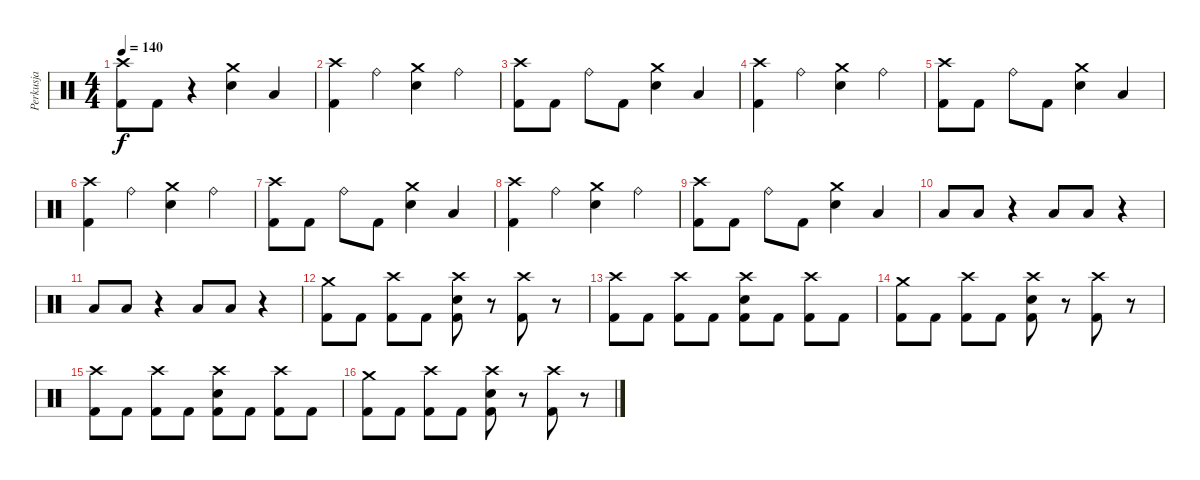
\track ("Perkusja" "Perkusja") {instrument percussion}
\staff {score}
\articulation defaults
\ts (4 4)
\tempo 140
\clef neutral
\ks c
("Crash high (hit)" "Kick (hit) 2").8{dy f} "Kick (hit) 2".8 r.4 ("Crash medium (hit)" "Electric Snare (hit)").4 "Low Floor Tom (hit)".4 |
("Crash high (hit)" "Kick (hit) 2").4 "Ride (bell)".4 ("Crash medium (hit)" "Electric Snare (hit)").4 "Ride (bell)".4 |
("Crash high (hit)" "Kick (hit) 2").8 "Kick (hit) 2".8 "Ride (bell)".8 "Kick (hit) 2".8 ("Crash medium (hit)" "Electric Snare (hit)").4 "Low Floor Tom (hit)".4 |
("Crash high (hit)" "Kick (hit) 2").4 "Ride (bell)".4 ("Crash medium (hit)" "Electric Snare (hit)").4 "Ride (bell)".4 |
("Crash high (hit)" "Kick (hit) 2").8 "Kick (hit) 2".8 "Ride (bell)".8 "Kick (hit) 2".8 ("Crash medium (hit)" "Electric Snare (hit)").4 "Low Floor Tom (hit)".4 |
("Crash high (hit)" "Kick (hit) 2").4 "Ride (bell)".4 ("Crash medium (hit)" "Electric Snare (hit)").4 "Ride (bell)".4 |
("Crash high (hit)" "Kick (hit) 2").8 "Kick (hit) 2".8 "Ride (bell)".8 "Kick (hit) 2".8 ("Crash medium (hit)" "Electric Snare (hit)").4 "Low Floor Tom (hit)".4 |
("Crash high (hit)" "Kick (hit) 2").4 "Ride (bell)".4 ("Crash medium (hit)" "Electric Snare (hit)").4 "Ride (bell)".4 |
("Crash high (hit)" "Kick (hit) 2").8 "Kick (hit) 2".8 "Ride (bell)".8 "Kick (hit) 2".8 ("Crash medium (hit)" "Electric Snare (hit)").4 "Low Floor Tom (hit)".4 |
"Low Floor Tom (hit)".8 "Low Floor Tom (hit)".8 r.4 "Low Floor Tom (hit)".8 "Low Floor Tom (hit)".8 r.4 |
"Low Floor Tom (hit)".8 "Low Floor Tom (hit)".8 r.4 "Low Floor Tom (hit)".8 "Low Floor Tom (hit)".8 r.4 |
("Crash medium (hit)" "Kick (hit) 2").8 "Kick (hit) 2".8 ("Crash high (hit)" "Kick (hit) 2").8 "Kick (hit) 2".8 ("Crash high (hit)" "Electric Snare (hit)" "Kick (hit) 2").8 r.8 ("Crash high (hit)" "Kick (hit) 2").8 r.8 |
("Crash high (hit)" "Kick (hit) 2").8 "Kick (hit) 2".8 ("Crash high (hit)" "Kick (hit) 2").8 "Kick (hit) 2".8 ("Crash high (hit)" "Electric Snare (hit)" "Kick (hit) 2").8 "Kick (hit) 2".8 ("Crash high (hit)" "Kick (hit) 2").8 "Kick (hit) 2".8 |
("Crash medium (hit)" "Kick (hit) 2").8 "Kick (hit) 2".8 ("Crash high (hit)" "Kick (hit) 2").8 "Kick (hit) 2".8 ("Crash high (hit)" "Electric Snare (hit)" "Kick (hit) 2").8 r.8 ("Crash high (hit)" "Kick (hit) 2").8 r.8 |
("Crash high (hit)" "Kick (hit) 2").8 "Kick (hit) 2".8 ("Crash high (hit)" "Kick (hit) 2").8 "Kick (hit) 2".8 ("Crash high (hit)" "Electric Snare (hit)" "Kick (hit) 2").8 "Kick (hit) 2".8 ("Crash high (hit)" "Kick (hit) 2").8 "Kick (hit) 2".8 |
("Crash medium (hit)" "Kick (hit) 2").8 "Kick (hit) 2".8 ("Crash high (hit)" "Kick (hit) 2").8 "Kick (hit) 2".8 ("Crash high (hit)" "Electric Snare (hit)" "Kick (hit) 2").8 r.8 ("Crash high (hit)" "Kick (hit) 2").8 r.8
